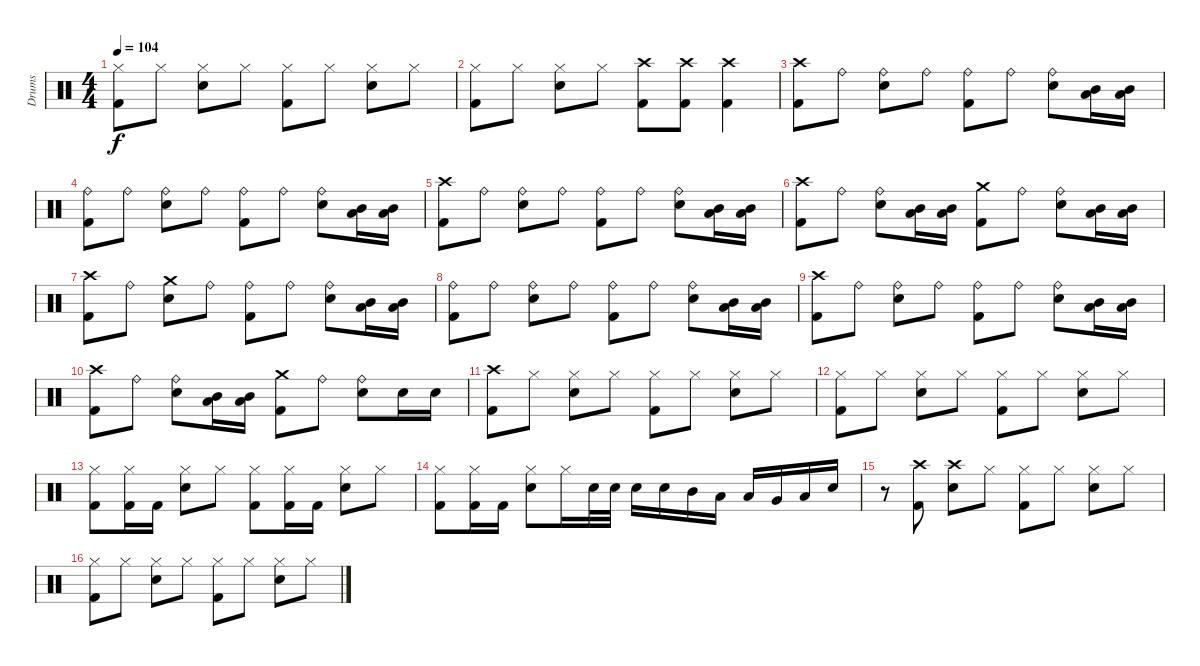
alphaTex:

\track ("Drums" "Drums") {instrument percussion}
\staff {score}
\articulation defaults
\ts (4 4)
\tempo 104
\clef neutral
\ks c
("Kick (hit) 2" "Hi-Hat (closed)").8{dy f} "Hi-Hat (closed)".8 ("Snare (hit) 2" "Hi-Hat (closed)").8 "Hi-Hat (closed)".8 ("Kick (hit) 2" "Hi-Hat (closed)").8 "Hi-Hat (closed)".8 ("Snare (hit) 2" "Hi-Hat (closed)").8 "Hi-Hat (closed)".8 |
("Kick (hit) 2" "Hi-Hat (closed)").8 "Hi-Hat (closed)".8 ("Snare (hit) 2" "Hi-Hat (closed)").8 "Hi-Hat (closed)".8 ("Kick (hit) 2" "Crash high (hit)").8 ("Kick (hit) 2" "Crash high (hit)").8 ("Kick (hit) 2" "Crash high (hit)").4 |
("Crash high (hit)" "Kick (hit) 2").8 "Ride (bell)".8 ("Snare (hit) 2" "Ride (bell)").8 "Ride (bell)".8 ("Ride (bell)" "Kick (hit) 2").8 "Ride (bell)".8 ("Ride (bell)" "Snare (hit) 2").8 ("Low Tom (hit)" "Mid Tom (hit)").16 ("Low Tom (hit)" "Mid Tom (hit)").16 |
("Ride (bell)" "Kick (hit) 2").8 "Ride (bell)".8 ("Ride (bell)" "Snare (hit) 2").8 "Ride (bell)".8 ("Ride (bell)" "Kick (hit) 2").8 "Ride (bell)".8 ("Ride (bell)" "Snare (hit) 2").8 ("Mid Tom (hit)" "Low Tom (hit)").16 ("Mid Tom (hit)" "Low Tom (hit)").16 |
("Crash high (hit)" "Kick (hit) 2").8 "Ride (bell)".8 ("Snare (hit) 2" "Ride (bell)").8 "Ride (bell)".8 ("Kick (hit) 2" "Ride (bell)").8 "Ride (bell)".8 ("Ride (bell)" "Snare (hit) 2").8 ("Low Tom (hit)" "Mid Tom (hit)").16 ("Low Tom (hit)" "Mid Tom (hit)").16 |
("Kick (hit) 2" "Crash high (hit)").8 "Ride (bell)".8 ("Snare (hit) 2" "Ride (bell)").8 ("Low Tom (hit)" "Mid Tom (hit)").16 ("Low Tom (hit)" "Mid Tom (hit)").16 ("Kick (hit) 2" "Crash medium (hit)").8 "Ride (bell)".8 ("Ride (bell)" "Snare (hit) 2").8 ("Mid Tom (hit)" "Low Tom (hit)").16 ("Mid Tom (hit)" "Low Tom (hit)").16 |
("Kick (hit) 2" "Crash high (hit)").8 "Ride (bell)".8 ("Snare (hit) 2" "Crash medium (hit)").8 "Ride (bell)".8 ("Ride (bell)" "Kick (hit) 2").8 "Ride (bell)".8 ("Ride (bell)" "Snare (hit) 2").8 ("Low Tom (hit)" "Mid Tom (hit)").16 ("Low Tom (hit)" "Mid Tom (hit)").16 |
("Kick (hit) 2" "Ride (bell)").8 "Ride (bell)".8 ("Ride (bell)" "Snare (hit) 2").8 "Ride (bell)".8 ("Kick (hit) 2" "Ride (bell)").8 "Ride (bell)".8 ("Ride (bell)" "Snare (hit) 2").8 ("Low Tom (hit)" "Mid Tom (hit)").16 ("Low Tom (hit)" "Mid Tom (hit)").16 |
("Kick (hit) 2" "Crash high (hit)").8 "Ride (bell)".8 ("Snare (hit) 2" "Ride (bell)").8 "Ride (bell)".8 ("Kick (hit) 2" "Ride (bell)").8 "Ride (bell)".8 ("Ride (bell)" "Snare (hit) 2").8 ("Low Tom (hit)" "Mid Tom (hit)").16 ("Low Tom (hit)" "Mid Tom (hit)").16 |
("Kick (hit) 2" "Crash high (hit)").8 "Ride (bell)".8 ("Snare (hit) 2" "Ride (bell)").8 ("Low Tom (hit)" "Mid Tom (hit)").16 ("Mid Tom (hit)" "Low Tom (hit)").16 ("Crash medium (hit)" "Kick (hit) 2").8 "Ride (bell)".8 ("Ride (bell)" "Snare (hit) 2").8 "Snare (hit) 2".16 "Snare (hit) 2".16 |
("Kick (hit) 2" "Crash high (hit)").8 "Hi-Hat (closed)".8 ("Hi-Hat (closed)" "Snare (hit) 2").8 "Hi-Hat (closed)".8 ("Kick (hit) 2" "Hi-Hat (closed)").8 "Hi-Hat (closed)".8 ("Hi-Hat (closed)" "Snare (hit) 2").8 "Hi-Hat (closed)".8 |
("Kick (hit) 2" "Hi-Hat (closed)").8 "Hi-Hat (closed)".8 ("Hi-Hat (closed)" "Snare (hit) 2").8 "Hi-Hat (closed)".8 ("Hi-Hat (closed)" "Kick (hit) 2").8 "Hi-Hat (closed)".8 ("Hi-Hat (closed)" "Snare (hit) 2").8 "Hi-Hat (closed)".8 |
("Hi-Hat (closed)" "Kick (hit) 2").8 ("Kick (hit) 2" "Hi-Hat (closed)").16 "Kick (hit) 2".16 ("Snare (hit) 2" "Hi-Hat (closed)").8 "Hi-Hat (closed)".8 ("Kick (hit) 2" "Hi-Hat (closed)").8 ("Kick (hit) 2" "Hi-Hat (closed)").16 "Kick (hit) 2".16 ("Snare (hit) 2" "Hi-Hat (closed)").8 "Hi-Hat (closed)".8 |
("Hi-Hat (closed)" "Kick (hit) 2").8 ("Kick (hit) 2" "Hi-Hat (closed)").16 "Kick (hit) 2".16 ("Hi-Hat (closed)" "Snare (hit) 2").8 "Hi-Hat (closed)".16 "Snare (hit) 2".32 "Snare (hit) 2".32 "Snare (hit) 2".16 "Snare (hit) 2".16 "Mid Tom (hit)".16 "Low Tom (hit)".16 "Low Tom (hit)".16 "Very Low Tom (hit)".16 "Low Floor Tom (hit)".16 "Snare (hit) 2".16 |
r.8 ("Kick (hit) 2" "Crash high (hit)").8 ("Crash high (hit)" "Snare (hit) 2").8 "Hi-Hat (closed)".8 ("Kick (hit) 2" "Hi-Hat (closed)").8 "Hi-Hat (closed)".8 ("Hi-Hat (closed)" "Snare (hit) 2").8 "Hi-Hat (closed)".8 |
("Kick (hit) 2" "Hi-Hat (closed)").8 "Hi-Hat (closed)".8 ("Snare (hit) 2" "Hi-Hat (closed)").8 "Hi-Hat (closed)".8 ("Hi-Hat (closed)" "Kick (hit) 2").8 "Hi-Hat (closed)".8 ("Snare (hit) 2" "Hi-Hat (closed)").8 "Hi-Hat (closed)".8
